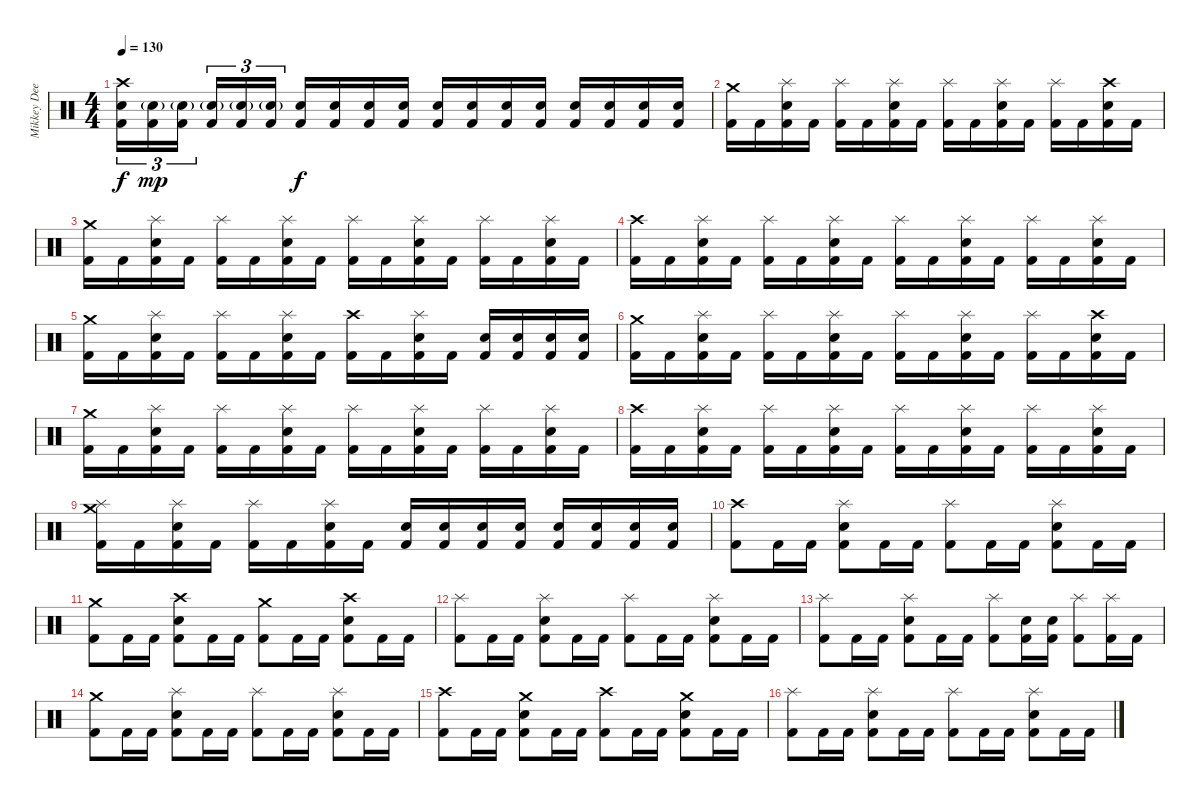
\track ("Mikkey Dee" "Mikkey Dee") {instrument percussion}
\staff {score}
\articulation defaults
\ts (4 4)
\tempo 130
\clef neutral
\ks c
("Crash high (hit)" "Snare (hit) 2" "Kick (hit) 2").16{tu (3 2) dy f} ("Snare (hit) 2"{g} "Kick (hit) 2").16{tu (3 2) dy mp} ("Snare (hit) 2"{g} "Kick (hit) 2").16{tu (3 2)} ("Snare (hit) 2"{g} "Kick (hit) 2").16{tu (3 2)} ("Snare (hit) 2"{g} "Kick (hit) 2").16{tu (3 2)} ("Snare (hit) 2"{g} "Kick (hit) 2").16{tu (3 2)} ("Snare (hit) 2" "Kick (hit) 2").16{dy f} ("Snare (hit) 2" "Kick (hit) 2").16 ("Snare (hit) 2" "Kick (hit) 2").16 ("Snare (hit) 2" "Kick (hit) 2").16 ("Snare (hit) 2" "Kick (hit) 2").16 ("Snare (hit) 2" "Kick (hit) 2").16 ("Snare (hit) 2" "Kick (hit) 2").16 ("Snare (hit) 2" "Kick (hit) 2").16 ("Snare (hit) 2" "Kick (hit) 2").16 ("Snare (hit) 2" "Kick (hit) 2").16 ("Snare (hit) 2" "Kick (hit) 2").16 ("Snare (hit) 2" "Kick (hit) 2").16 |
("Crash medium (hit)" "Kick (hit) 2").16 "Kick (hit) 2".16 ("Splash (hit)" "Snare (hit) 2" "Kick (hit) 2").16 "Kick (hit) 2".16 ("Splash (hit)" "Kick (hit) 2").16 "Kick (hit) 2".16 ("Splash (hit)" "Snare (hit) 2" "Kick (hit) 2").16 "Kick (hit) 2".16 ("Splash (hit)" "Kick (hit) 2").16 "Kick (hit) 2".16 ("Splash (hit)" "Snare (hit) 2" "Kick (hit) 2").16 "Kick (hit) 2".16 ("Splash (hit)" "Kick (hit) 2").16 "Kick (hit) 2".16 ("Crash high (hit)" "Snare (hit) 2" "Kick (hit) 2").16 "Kick (hit) 2".16 |
("Crash medium (hit)" "Kick (hit) 2").16 "Kick (hit) 2".16 ("Splash (hit)" "Snare (hit) 2" "Kick (hit) 2").16 "Kick (hit) 2".16 ("Splash (hit)" "Kick (hit) 2").16 "Kick (hit) 2".16 ("Splash (hit)" "Snare (hit) 2" "Kick (hit) 2").16 "Kick (hit) 2".16 ("Splash (hit)" "Kick (hit) 2").16 "Kick (hit) 2".16 ("Splash (hit)" "Snare (hit) 2" "Kick (hit) 2").16 "Kick (hit) 2".16 ("Splash (hit)" "Kick (hit) 2").16 "Kick (hit) 2".16 ("Splash (hit)" "Snare (hit) 2" "Kick (hit) 2").16 "Kick (hit) 2".16 |
("Crash high (hit)" "Kick (hit) 2").16 "Kick (hit) 2".16 ("Splash (hit)" "Snare (hit) 2" "Kick (hit) 2").16 "Kick (hit) 2".16 ("Splash (hit)" "Kick (hit) 2").16 "Kick (hit) 2".16 ("Splash (hit)" "Snare (hit) 2" "Kick (hit) 2").16 "Kick (hit) 2".16 ("Splash (hit)" "Kick (hit) 2").16 "Kick (hit) 2".16 ("Splash (hit)" "Snare (hit) 2" "Kick (hit) 2").16 "Kick (hit) 2".16 ("Splash (hit)" "Kick (hit) 2").16 "Kick (hit) 2".16 ("Splash (hit)" "Snare (hit) 2" "Kick (hit) 2").16 "Kick (hit) 2".16 |
("Crash medium (hit)" "Kick (hit) 2").16 "Kick (hit) 2".16 ("Splash (hit)" "Snare (hit) 2" "Kick (hit) 2").16 "Kick (hit) 2".16 ("Splash (hit)" "Kick (hit) 2").16 "Kick (hit) 2".16 ("Splash (hit)" "Snare (hit) 2" "Kick (hit) 2").16 "Kick (hit) 2".16 ("Crash high (hit)" "Kick (hit) 2").16 "Kick (hit) 2".16 ("Splash (hit)" "Snare (hit) 2" "Kick (hit) 2").16 "Kick (hit) 2".16 ("Snare (hit) 2" "Kick (hit) 2").16 ("Snare (hit) 2" "Kick (hit) 2").16 ("Snare (hit) 2" "Kick (hit) 2").16 ("Snare (hit) 2" "Kick (hit) 2").16 |
("Crash medium (hit)" "Kick (hit) 2").16 "Kick (hit) 2".16 ("Splash (hit)" "Snare (hit) 2" "Kick (hit) 2").16 "Kick (hit) 2".16 ("Splash (hit)" "Kick (hit) 2").16 "Kick (hit) 2".16 ("Splash (hit)" "Snare (hit) 2" "Kick (hit) 2").16 "Kick (hit) 2".16 ("Splash (hit)" "Kick (hit) 2").16 "Kick (hit) 2".16 ("Splash (hit)" "Snare (hit) 2" "Kick (hit) 2").16 "Kick (hit) 2".16 ("Splash (hit)" "Kick (hit) 2").16 "Kick (hit) 2".16 ("Crash high (hit)" "Snare (hit) 2" "Kick (hit) 2").16 "Kick (hit) 2".16 |
("Crash medium (hit)" "Kick (hit) 2").16 "Kick (hit) 2".16 ("Splash (hit)" "Snare (hit) 2" "Kick (hit) 2").16 "Kick (hit) 2".16 ("Splash (hit)" "Kick (hit) 2").16 "Kick (hit) 2".16 ("Splash (hit)" "Snare (hit) 2" "Kick (hit) 2").16 "Kick (hit) 2".16 ("Splash (hit)" "Kick (hit) 2").16 "Kick (hit) 2".16 ("Splash (hit)" "Snare (hit) 2" "Kick (hit) 2").16 "Kick (hit) 2".16 ("Splash (hit)" "Kick (hit) 2").16 "Kick (hit) 2".16 ("Splash (hit)" "Snare (hit) 2" "Kick (hit) 2").16 "Kick (hit) 2".16 |
("Crash high (hit)" "Kick (hit) 2").16 "Kick (hit) 2".16 ("Splash (hit)" "Snare (hit) 2" "Kick (hit) 2").16 "Kick (hit) 2".16 ("Splash (hit)" "Kick (hit) 2").16 "Kick (hit) 2".16 ("Splash (hit)" "Snare (hit) 2" "Kick (hit) 2").16 "Kick (hit) 2".16 ("Splash (hit)" "Kick (hit) 2").16 "Kick (hit) 2".16 ("Splash (hit)" "Snare (hit) 2" "Kick (hit) 2").16 "Kick (hit) 2".16 ("Splash (hit)" "Kick (hit) 2").16 "Kick (hit) 2".16 ("Splash (hit)" "Snare (hit) 2" "Kick (hit) 2").16 "Kick (hit) 2".16 |
("Crash medium (hit)" "Splash (hit)" "Kick (hit) 2").16 "Kick (hit) 2".16 ("Splash (hit)" "Snare (hit) 2" "Kick (hit) 2").16 "Kick (hit) 2".16 ("Splash (hit)" "Kick (hit) 2").16 "Kick (hit) 2".16 ("Splash (hit)" "Snare (hit) 2" "Kick (hit) 2").16 "Kick (hit) 2".16 ("Snare (hit) 2" "Kick (hit) 2").16 ("Snare (hit) 2" "Kick (hit) 2").16 ("Snare (hit) 2" "Kick (hit) 2").16 ("Snare (hit) 2" "Kick (hit) 2").16 ("Snare (hit) 2" "Kick (hit) 2").16 ("Snare (hit) 2" "Kick (hit) 2").16 ("Snare (hit) 2" "Kick (hit) 2").16 ("Snare (hit) 2" "Kick (hit) 2").16 |
("Crash high (hit)" "Kick (hit) 2").8 "Kick (hit) 2".16 "Kick (hit) 2".16 ("Splash (hit)" "Snare (hit) 2" "Kick (hit) 2").8 "Kick (hit) 2".16 "Kick (hit) 2".16 ("Splash (hit)" "Kick (hit) 2").8 "Kick (hit) 2".16 "Kick (hit) 2".16 ("Splash (hit)" "Snare (hit) 2" "Kick (hit) 2").8 "Kick (hit) 2".16 "Kick (hit) 2".16 |
("Crash medium (hit)" "Kick (hit) 2").8 "Kick (hit) 2".16 "Kick (hit) 2".16 ("Crash high (hit)" "Snare (hit) 2" "Kick (hit) 2").8 "Kick (hit) 2".16 "Kick (hit) 2".16 ("Crash medium (hit)" "Kick (hit) 2").8 "Kick (hit) 2".16 "Kick (hit) 2".16 ("Crash high (hit)" "Snare (hit) 2" "Kick (hit) 2").8 "Kick (hit) 2".16 "Kick (hit) 2".16 |
("Splash (hit)" "Kick (hit) 2").8 "Kick (hit) 2".16 "Kick (hit) 2".16 ("Splash (hit)" "Snare (hit) 2" "Kick (hit) 2").8 "Kick (hit) 2".16 "Kick (hit) 2".16 ("Splash (hit)" "Kick (hit) 2").8 "Kick (hit) 2".16 "Kick (hit) 2".16 ("Splash (hit)" "Snare (hit) 2" "Kick (hit) 2").8 "Kick (hit) 2".16 "Kick (hit) 2".16 |
("Splash (hit)" "Kick (hit) 2").8 "Kick (hit) 2".16 "Kick (hit) 2".16 ("Splash (hit)" "Snare (hit) 2" "Kick (hit) 2").8 "Kick (hit) 2".16 "Kick (hit) 2".16 ("Splash (hit)" "Kick (hit) 2").8 ("Snare (hit) 2" "Kick (hit) 2").16 ("Snare (hit) 2" "Kick (hit) 2").16 ("Splash (hit)" "Kick (hit) 2").8 ("Splash (hit)" "Kick (hit) 2").16 "Kick (hit) 2".16 |
("Crash medium (hit)" "Kick (hit) 2").8 "Kick (hit) 2".16 "Kick (hit) 2".16 ("Splash (hit)" "Snare (hit) 2" "Kick (hit) 2").8 "Kick (hit) 2".16 "Kick (hit) 2".16 ("Splash (hit)" "Kick (hit) 2").8 "Kick (hit) 2".16 "Kick (hit) 2".16 ("Splash (hit)" "Snare (hit) 2" "Kick (hit) 2").8 "Kick (hit) 2".16 "Kick (hit) 2".16 |
("Crash high (hit)" "Kick (hit) 2").8 "Kick (hit) 2".16 "Kick (hit) 2".16 ("Crash medium (hit)" "Snare (hit) 2" "Kick (hit) 2").8 "Kick (hit) 2".16 "Kick (hit) 2".16 ("Crash high (hit)" "Kick (hit) 2").8 "Kick (hit) 2".16 "Kick (hit) 2".16 ("Crash medium (hit)" "Snare (hit) 2" "Kick (hit) 2").8 "Kick (hit) 2".16 "Kick (hit) 2".16 |
("Splash (hit)" "Kick (hit) 2").8 "Kick (hit) 2".16 "Kick (hit) 2".16 ("Splash (hit)" "Snare (hit) 2" "Kick (hit) 2").8 "Kick (hit) 2".16 "Kick (hit) 2".16 ("Splash (hit)" "Kick (hit) 2").8 "Kick (hit) 2".16 "Kick (hit) 2".16 ("Splash (hit)" "Snare (hit) 2" "Kick (hit) 2").8 "Kick (hit) 2".16 "Kick (hit) 2".16
